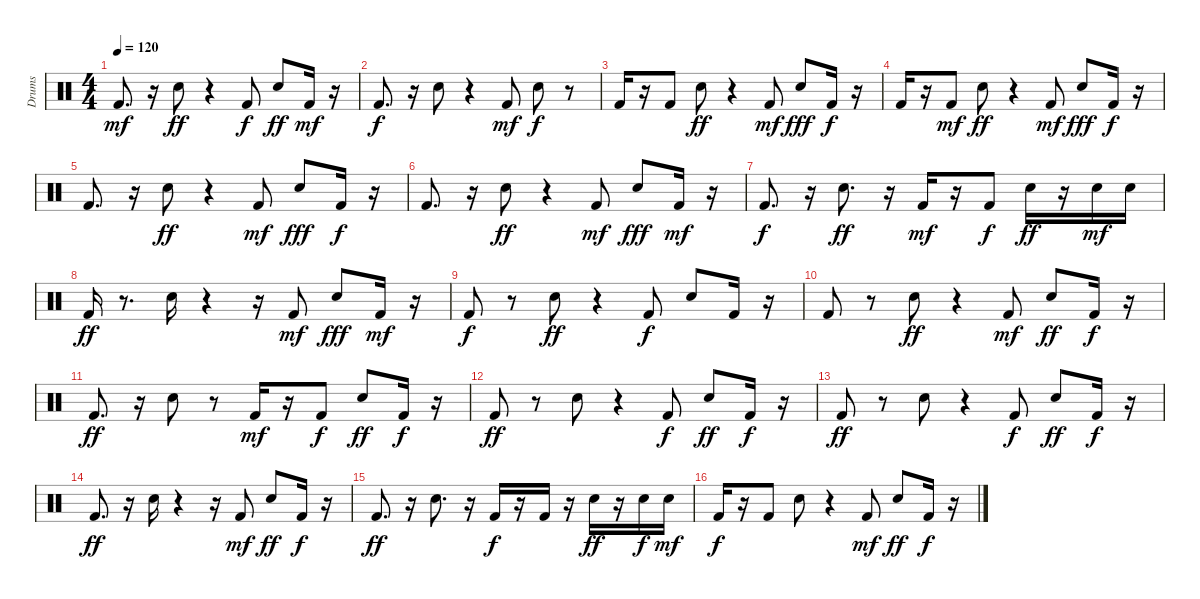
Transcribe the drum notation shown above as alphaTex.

\track ("Drums" "Drums") {instrument percussion}
\staff {score}
\articulation defaults
\ts (4 4)
\tempo 120
\clef neutral
\ks c "Kick (hit) 2".8{d dy mf}
r.16 "Electric Snare (hit)".8{dy ff} r.4 "Kick (hit) 2".8{dy f} "Electric Snare (hit)".8{dy ff} "Kick (hit) 2".16{dy mf} r.16 |
"Kick (hit) 2".8{d dy f} r.16 "Electric Snare (hit)".8 r.4 "Kick (hit) 2".8{dy mf} "Electric Snare (hit)".8{dy f} r.8 |
"Kick (hit) 2".16 r.16 "Kick (hit) 2".8 "Electric Snare (hit)".8{dy ff} r.4 "Kick (hit) 2".8{dy mf} "Electric Snare (hit)".8{dy fff} "Kick (hit) 2".16{dy f} r.16 |
"Kick (hit) 2".16 r.16 "Kick (hit) 2".8{dy mf} "Electric Snare (hit)".8{dy ff} r.4 "Kick (hit) 2".8{dy mf} "Electric Snare (hit)".8{dy fff} "Kick (hit) 2".16{dy f} r.16 |
"Kick (hit) 2".8{d} r.16 "Electric Snare (hit)".8{dy ff} r.4 "Kick (hit) 2".8{dy mf} "Electric Snare (hit)".8{dy fff} "Kick (hit) 2".16{dy f} r.16 |
"Kick (hit) 2".8{d} r.16 "Electric Snare (hit)".8{dy ff} r.4 "Kick (hit) 2".8{dy mf} "Electric Snare (hit)".8{dy fff} "Kick (hit) 2".16{dy mf} r.16 |
"Kick (hit) 2".8{d dy f} r.16 "Electric Snare (hit)".8{d dy ff} r.16 "Kick (hit) 2".16{dy mf} r.16 "Kick (hit) 2".8{dy f} "Electric Snare (hit)".16{dy ff} r.16 "Electric Snare (hit)".16{dy mf} "Electric Snare (hit)".16 |
"Kick (hit) 2".16{dy ff} r.8{d} "Electric Snare (hit)".16 r.4 r.16 "Kick (hit) 2".8{dy mf} "Electric Snare (hit)".8{dy fff} "Kick (hit) 2".16{dy mf} r.16 |
"Kick (hit) 2".8{dy f} r.8 "Electric Snare (hit)".8{dy ff} r.4 "Kick (hit) 2".8{dy f} "Electric Snare (hit)".8 "Kick (hit) 2".16 r.16 |
"Kick (hit) 2".8 r.8 "Electric Snare (hit)".8{dy ff} r.4 "Kick (hit) 2".8{dy mf} "Electric Snare (hit)".8{dy ff} "Kick (hit) 2".16{dy f} r.16 |
"Kick (hit) 2".8{d dy ff} r.16 "Electric Snare (hit)".8 r.8 "Kick (hit) 2".16{dy mf} r.16 "Kick (hit) 2".8{dy f} "Electric Snare (hit)".8{dy ff} "Kick (hit) 2".16{dy f} r.16 |
"Kick (hit) 2".8{dy ff} r.8 "Electric Snare (hit)".8 r.4 "Kick (hit) 2".8{dy f} "Electric Snare (hit)".8{dy ff} "Kick (hit) 2".16{dy f} r.16 |
"Kick (hit) 2".8{dy ff} r.8 "Electric Snare (hit)".8 r.4 "Kick (hit) 2".8{dy f} "Electric Snare (hit)".8{dy ff} "Kick (hit) 2".16{dy f} r.16 |
"Kick (hit) 2".8{d dy ff} r.16 "Electric Snare (hit)".16 r.4 r.16 "Kick (hit) 2".8{dy mf} "Electric Snare (hit)".8{dy ff} "Kick (hit) 2".16{dy f} r.16 |
"Kick (hit) 2".8{d dy ff} r.16 "Electric Snare (hit)".8{d} r.16 "Kick (hit) 2".16{dy f} r.16 "Kick (hit) 2".16 r.16 "Electric Snare (hit)".16{dy ff} r.16 "Electric Snare (hit)".16{dy f} "Electric Snare (hit)".16{dy mf} |
"Kick (hit) 2".16{dy f} r.16 "Kick (hit) 2".8 "Electric Snare (hit)".8 r.4 "Kick (hit) 2".8{dy mf} "Electric Snare (hit)".8{dy ff} "Kick (hit) 2".16{dy f} r.16
